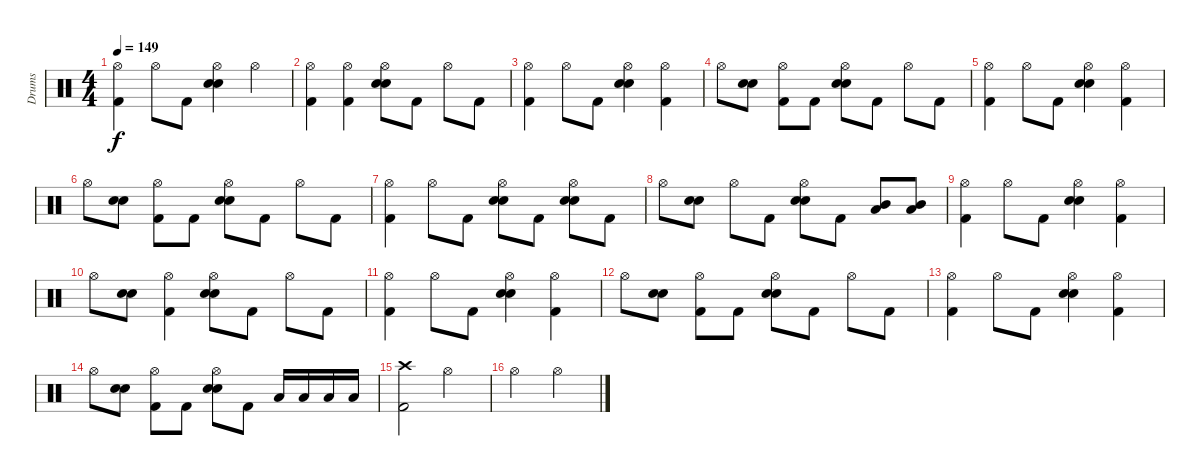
\track ("Drums" "Drums") {instrument percussion}
\staff {score}
\articulation defaults
\ts (4 4)
\tempo 149
\clef neutral
\ks c
("Kick (hit) 2" "Hi-Hat (open)").4{dy f} "Hi-Hat (open)".8 "Kick (hit) 2".8 ("Electric Snare (hit)" "Snare (hit) 2" "Hi-Hat (open)").4 "Hi-Hat (open)".4 |
("Kick (hit) 2" "Hi-Hat (open)").4 ("Kick (hit) 2" "Hi-Hat (open)").4 ("Electric Snare (hit)" "Snare (hit) 2" "Hi-Hat (open)").8 "Kick (hit) 2".8 "Hi-Hat (open)".8 "Kick (hit) 2".8 |
("Kick (hit) 2" "Hi-Hat (open)").4 "Hi-Hat (open)".8 "Kick (hit) 2".8 ("Electric Snare (hit)" "Snare (hit) 2" "Hi-Hat (open)").4 ("Kick (hit) 2" "Hi-Hat (open)").4 |
"Hi-Hat (open)".8 ("Electric Snare (hit)" "Snare (hit) 2").8 ("Kick (hit) 2" "Hi-Hat (open)").8 "Kick (hit) 2".8 ("Electric Snare (hit)" "Snare (hit) 2" "Hi-Hat (open)").8 "Kick (hit) 2".8 "Hi-Hat (open)".8 "Kick (hit) 2".8 |
("Kick (hit) 2" "Hi-Hat (open)").4 "Hi-Hat (open)".8 "Kick (hit) 2".8 ("Electric Snare (hit)" "Snare (hit) 2" "Hi-Hat (open)").4 ("Kick (hit) 2" "Hi-Hat (open)").4 |
"Hi-Hat (open)".8 ("Electric Snare (hit)" "Snare (hit) 2").8 ("Kick (hit) 2" "Hi-Hat (open)").8 "Kick (hit) 2".8 ("Electric Snare (hit)" "Snare (hit) 2" "Hi-Hat (open)").8 "Kick (hit) 2".8 "Hi-Hat (open)".8 "Kick (hit) 2".8 |
("Kick (hit) 2" "Hi-Hat (open)").4 "Hi-Hat (open)".8 "Kick (hit) 2".8 ("Electric Snare (hit)" "Snare (hit) 2" "Hi-Hat (open)").8 "Kick (hit) 2".8 ("Electric Snare (hit)" "Snare (hit) 2" "Hi-Hat (open)").8 "Kick (hit) 2".8 |
"Hi-Hat (open)".8 ("Electric Snare (hit)" "Snare (hit) 2").8 "Hi-Hat (open)".8 "Kick (hit) 2".8 ("Electric Snare (hit)" "Snare (hit) 2" "Hi-Hat (open)").8 "Kick (hit) 2".8 ("Mid Tom (hit)" "Low Tom (hit)").8 ("Mid Tom (hit)" "Low Tom (hit)").8 |
("Kick (hit) 2" "Hi-Hat (open)").4 "Hi-Hat (open)".8 "Kick (hit) 2".8 ("Electric Snare (hit)" "Snare (hit) 2" "Hi-Hat (open)").4 ("Kick (hit) 2" "Hi-Hat (open)").4 |
"Hi-Hat (open)".8 ("Electric Snare (hit)" "Snare (hit) 2").8 ("Kick (hit) 2" "Hi-Hat (open)").4 ("Electric Snare (hit)" "Snare (hit) 2" "Hi-Hat (open)").8 "Kick (hit) 2".8 "Hi-Hat (open)".8 "Kick (hit) 2".8 |
("Kick (hit) 2" "Hi-Hat (open)").4 "Hi-Hat (open)".8 "Kick (hit) 2".8 ("Electric Snare (hit)" "Snare (hit) 2" "Hi-Hat (open)").4 ("Kick (hit) 2" "Hi-Hat (open)").4 |
"Hi-Hat (open)".8 ("Electric Snare (hit)" "Snare (hit) 2").8 ("Kick (hit) 2" "Hi-Hat (open)").8 "Kick (hit) 2".8 ("Electric Snare (hit)" "Snare (hit) 2" "Hi-Hat (open)").8 "Kick (hit) 2".8 "Hi-Hat (open)".8 "Kick (hit) 2".8 |
("Kick (hit) 2" "Hi-Hat (open)").4 "Hi-Hat (open)".8 "Kick (hit) 2".8 ("Electric Snare (hit)" "Snare (hit) 2" "Hi-Hat (open)").4 ("Kick (hit) 2" "Hi-Hat (open)").4 |
"Hi-Hat (open)".8 ("Electric Snare (hit)" "Snare (hit) 2").8 ("Kick (hit) 2" "Hi-Hat (open)").8 "Kick (hit) 2".8 ("Electric Snare (hit)" "Snare (hit) 2" "Hi-Hat (open)").8 "Kick (hit) 2".8 "Low Tom (hit)".16 "Low Tom (hit)".16 "Low Tom (hit)".16 "Low Tom (hit)".16 |
("Kick (hit) 2" "Crash high (hit)").2 "Hi-Hat (open)".2 |
"Hi-Hat (open)".2 "Hi-Hat (open)".2
